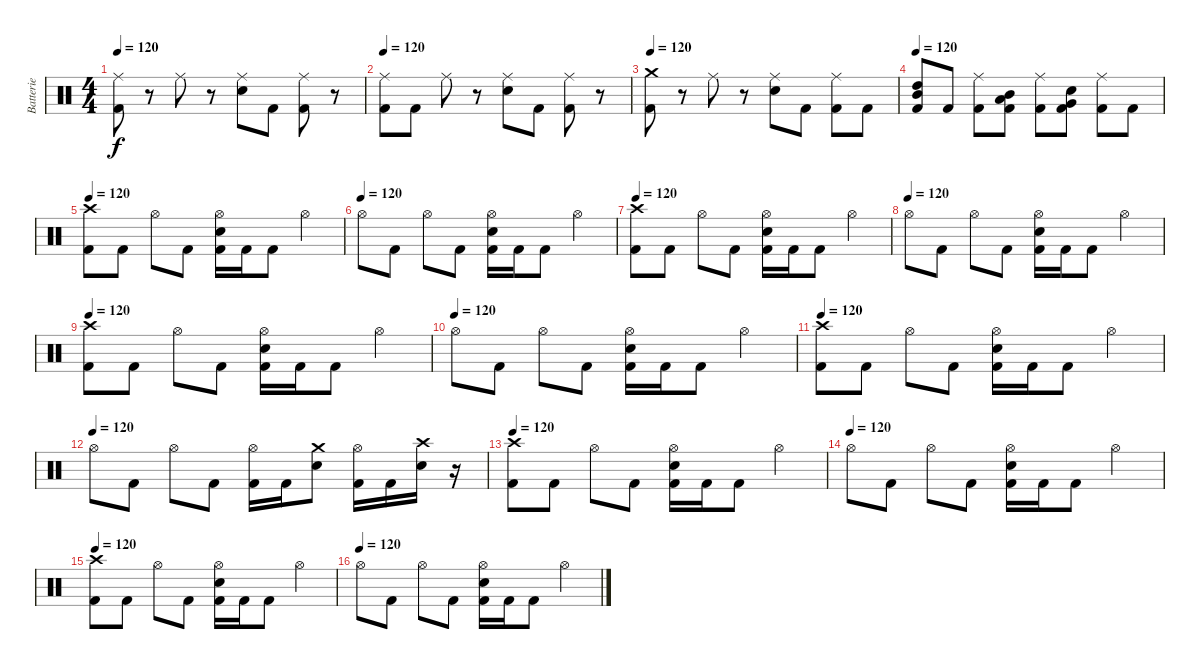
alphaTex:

\track ("Batterie" "Batterie") {instrument percussion}
\staff {score}
\articulation defaults
\ts (4 4)
\tempo 120
\clef neutral
\ks c
("Ride (middle)" "Kick (hit) 2").8{dy f} r.8 "Ride (middle)".8 r.8 ("Ride (middle)" "Electric Snare (hit)").8 "Kick (hit) 2".8 ("Ride (middle)" "Kick (hit) 2").8 r.8 |
\tempo 120
("Ride (middle)" "Kick (hit) 2").8 "Kick (hit) 2".8 "Ride (middle)".8 r.8 ("Ride (middle)" "Electric Snare (hit)").8 "Kick (hit) 2".8 ("Ride (middle)" "Kick (hit) 2").8 r.8 |
\tempo 120
("Crash medium (hit)" "Kick (hit) 2").8 r.8 "Ride (middle)".8 r.8 ("Ride (middle)" "Electric Snare (hit)").8 "Kick (hit) 2".8 ("Ride (middle)" "Kick (hit) 2").8 "Kick (hit) 2".8 |
\tempo 120
("Mid Tom (hit)" "High Tom (hit)" "Kick (hit) 2").8 "Kick (hit) 2".8 ("Ride (middle)" "Kick (hit) 2").8 ("Low Tom (hit)" "Mid Tom (hit)" "Kick (hit) 2").8 ("Ride (middle)" "Kick (hit) 2").8 ("Very Low Tom (hit)" "Electric Snare (hit)" "Kick (hit) 2").8 ("Ride (middle)" "Kick (hit) 2").8 "Kick (hit) 2".8 |
\tempo 120
("Crash high (hit)" "Kick (hit) 2").8 "Kick (hit) 2".8 "Hi-Hat (open)".8 "Kick (hit) 2".8 ("Hi-Hat (open)" "Electric Snare (hit)" "Kick (hit) 2").16 "Kick (hit) 2".16 "Kick (hit) 2".8 "Hi-Hat (open)".4 |
\tempo (120)
"Hi-Hat (open)".8 "Kick (hit) 2".8 "Hi-Hat (open)".8 "Kick (hit) 2".8 ("Hi-Hat (open)" "Electric Snare (hit)" "Kick (hit) 2").16 "Kick (hit) 2".16 "Kick (hit) 2".8 "Hi-Hat (open)".4 |
\tempo 120
("Crash high (hit)" "Kick (hit) 2").8 "Kick (hit) 2".8 "Hi-Hat (open)".8 "Kick (hit) 2".8 ("Hi-Hat (open)" "Electric Snare (hit)" "Kick (hit) 2").16 "Kick (hit) 2".16 "Kick (hit) 2".8 "Hi-Hat (open)".4 |
\tempo (120)
"Hi-Hat (open)".8 "Kick (hit) 2".8 "Hi-Hat (open)".8 "Kick (hit) 2".8 ("Hi-Hat (open)" "Electric Snare (hit)" "Kick (hit) 2").16 "Kick (hit) 2".16 "Kick (hit) 2".8 "Hi-Hat (open)".4 |
\tempo 120
("Crash high (hit)" "Kick (hit) 2").8 "Kick (hit) 2".8 "Hi-Hat (open)".8 "Kick (hit) 2".8 ("Hi-Hat (open)" "Electric Snare (hit)" "Kick (hit) 2").16 "Kick (hit) 2".16 "Kick (hit) 2".8 "Hi-Hat (open)".4 |
\tempo (120)
"Hi-Hat (open)".8 "Kick (hit) 2".8 "Hi-Hat (open)".8 "Kick (hit) 2".8 ("Hi-Hat (open)" "Electric Snare (hit)" "Kick (hit) 2").16 "Kick (hit) 2".16 "Kick (hit) 2".8 "Hi-Hat (open)".4 |
\tempo 120
("Crash high (hit)" "Kick (hit) 2").8 "Kick (hit) 2".8 "Hi-Hat (open)".8 "Kick (hit) 2".8 ("Hi-Hat (open)" "Electric Snare (hit)" "Kick (hit) 2").16 "Kick (hit) 2".16 "Kick (hit) 2".8 "Hi-Hat (open)".4 |
\tempo (120)
"Hi-Hat (open)".8 "Kick (hit) 2".8 "Hi-Hat (open)".8 "Kick (hit) 2".8 ("Hi-Hat (open)" "Kick (hit) 2").16 "Kick (hit) 2".16 ("Crash medium (hit)" "Electric Snare (hit)").8 ("Hi-Hat (open)" "Kick (hit) 2").16 "Kick (hit) 2".16 ("Crash high (hit)" "Electric Snare (hit)").16 r.16 |
\tempo 120
("Crash high (hit)" "Kick (hit) 2").8 "Kick (hit) 2".8 "Hi-Hat (open)".8 "Kick (hit) 2".8 ("Hi-Hat (open)" "Electric Snare (hit)" "Kick (hit) 2").16 "Kick (hit) 2".16 "Kick (hit) 2".8 "Hi-Hat (open)".4 |
\tempo (120)
"Hi-Hat (open)".8 "Kick (hit) 2".8 "Hi-Hat (open)".8 "Kick (hit) 2".8 ("Hi-Hat (open)" "Electric Snare (hit)" "Kick (hit) 2").16 "Kick (hit) 2".16 "Kick (hit) 2".8 "Hi-Hat (open)".4 |
\tempo 120
("Crash high (hit)" "Kick (hit) 2").8 "Kick (hit) 2".8 "Hi-Hat (open)".8 "Kick (hit) 2".8 ("Hi-Hat (open)" "Electric Snare (hit)" "Kick (hit) 2").16 "Kick (hit) 2".16 "Kick (hit) 2".8 "Hi-Hat (open)".4 |
\tempo (120)
"Hi-Hat (open)".8 "Kick (hit) 2".8 "Hi-Hat (open)".8 "Kick (hit) 2".8 ("Hi-Hat (open)" "Electric Snare (hit)" "Kick (hit) 2").16 "Kick (hit) 2".16 "Kick (hit) 2".8 "Hi-Hat (open)".4
